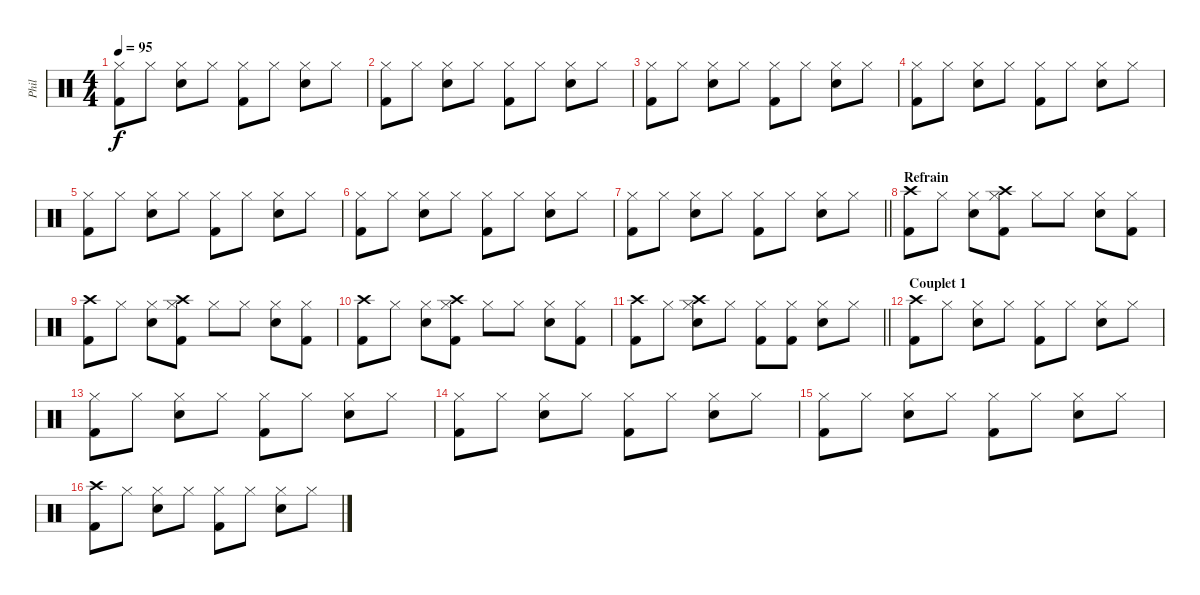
\track ("Phil" "Phil") {instrument percussion}
\staff {score}
\articulation defaults
\ts (4 4)
\tempo 95
\clef neutral
\ks c
("Kick (hit) 2" "Hi-Hat (closed)").8{dy f} "Hi-Hat (closed)".8 ("Electric Snare (hit)" "Hi-Hat (closed)").8 "Hi-Hat (closed)".8 ("Kick (hit) 2" "Hi-Hat (closed)").8 "Hi-Hat (closed)".8 ("Electric Snare (hit)" "Hi-Hat (closed)").8 "Hi-Hat (closed)".8 |
("Kick (hit) 2" "Hi-Hat (closed)").8 "Hi-Hat (closed)".8 ("Electric Snare (hit)" "Hi-Hat (closed)").8 "Hi-Hat (closed)".8 ("Kick (hit) 2" "Hi-Hat (closed)").8 "Hi-Hat (closed)".8 ("Electric Snare (hit)" "Hi-Hat (closed)").8 "Hi-Hat (closed)".8 |
("Kick (hit) 2" "Hi-Hat (closed)").8 "Hi-Hat (closed)".8 ("Electric Snare (hit)" "Hi-Hat (closed)").8 "Hi-Hat (closed)".8 ("Kick (hit) 2" "Hi-Hat (closed)").8 "Hi-Hat (closed)".8 ("Electric Snare (hit)" "Hi-Hat (closed)").8 "Hi-Hat (closed)".8 |
("Kick (hit) 2" "Hi-Hat (closed)").8 "Hi-Hat (closed)".8 ("Electric Snare (hit)" "Hi-Hat (closed)").8 "Hi-Hat (closed)".8 ("Kick (hit) 2" "Hi-Hat (closed)").8 "Hi-Hat (closed)".8 ("Electric Snare (hit)" "Hi-Hat (closed)").8 "Hi-Hat (closed)".8 |
("Kick (hit) 2" "Hi-Hat (closed)").8 "Hi-Hat (closed)".8 ("Electric Snare (hit)" "Hi-Hat (closed)").8 "Hi-Hat (closed)".8 ("Kick (hit) 2" "Hi-Hat (closed)").8 "Hi-Hat (closed)".8 ("Electric Snare (hit)" "Hi-Hat (closed)").8 "Hi-Hat (closed)".8 |
("Kick (hit) 2" "Hi-Hat (closed)").8 "Hi-Hat (closed)".8 ("Electric Snare (hit)" "Hi-Hat (closed)").8 "Hi-Hat (closed)".8 ("Kick (hit) 2" "Hi-Hat (closed)").8 "Hi-Hat (closed)".8 ("Electric Snare (hit)" "Hi-Hat (closed)").8 "Hi-Hat (closed)".8 |
\barLineRight lightlight
("Kick (hit) 2" "Hi-Hat (closed)").8 "Hi-Hat (closed)".8 ("Electric Snare (hit)" "Hi-Hat (closed)").8 "Hi-Hat (closed)".8 ("Kick (hit) 2" "Hi-Hat (closed)").8 "Hi-Hat (closed)".8 ("Electric Snare (hit)" "Hi-Hat (closed)").8 "Hi-Hat (closed)".8 |
\section ("" "Refrain")
("Kick (hit) 2" "Crash high (hit)").8 "Hi-Hat (closed)".8 ("Electric Snare (hit)" "Hi-Hat (closed)").8 ("Kick (hit) 2" "Hi-Hat (closed)" "Crash high (hit)").8 "Hi-Hat (closed)".8 "Hi-Hat (closed)".8 ("Electric Snare (hit)" "Hi-Hat (closed)").8 ("Kick (hit) 2" "Hi-Hat (closed)").8 |
("Kick (hit) 2" "Crash high (hit)").8 "Hi-Hat (closed)".8 ("Electric Snare (hit)" "Hi-Hat (closed)").8 ("Kick (hit) 2" "Hi-Hat (closed)" "Crash high (hit)").8 "Hi-Hat (closed)".8 "Hi-Hat (closed)".8 ("Electric Snare (hit)" "Hi-Hat (closed)").8 ("Kick (hit) 2" "Hi-Hat (closed)").8 |
("Kick (hit) 2" "Crash high (hit)").8 "Hi-Hat (closed)".8 ("Electric Snare (hit)" "Hi-Hat (closed)").8 ("Kick (hit) 2" "Hi-Hat (closed)" "Crash high (hit)").8 "Hi-Hat (closed)".8 "Hi-Hat (closed)".8 ("Electric Snare (hit)" "Hi-Hat (closed)").8 ("Kick (hit) 2" "Hi-Hat (closed)").8 |
\barLineRight lightlight
("Kick (hit) 2" "Crash high (hit)").8 "Hi-Hat (closed)".8 ("Electric Snare (hit)" "Hi-Hat (closed)" "Crash high (hit)").8 "Hi-Hat (closed)".8 ("Kick (hit) 2" "Hi-Hat (closed)").8 ("Kick (hit) 2" "Hi-Hat (closed)").8 ("Hi-Hat (closed)" "Electric Snare (hit)").8 "Hi-Hat (closed)".8 |
\section ("" "Couplet 1")
("Kick (hit) 2" "Crash high (hit)").8 "Hi-Hat (closed)".8 ("Electric Snare (hit)" "Hi-Hat (closed)").8 "Hi-Hat (closed)".8 ("Kick (hit) 2" "Hi-Hat (closed)").8 "Hi-Hat (closed)".8 ("Electric Snare (hit)" "Hi-Hat (closed)").8 "Hi-Hat (closed)".8 |
("Kick (hit) 2" "Hi-Hat (closed)").8 "Hi-Hat (closed)".8 ("Electric Snare (hit)" "Hi-Hat (closed)").8 "Hi-Hat (closed)".8 ("Kick (hit) 2" "Hi-Hat (closed)").8 "Hi-Hat (closed)".8 ("Electric Snare (hit)" "Hi-Hat (closed)").8 "Hi-Hat (closed)".8 |
("Kick (hit) 2" "Hi-Hat (closed)").8 "Hi-Hat (closed)".8 ("Electric Snare (hit)" "Hi-Hat (closed)").8 "Hi-Hat (closed)".8 ("Kick (hit) 2" "Hi-Hat (closed)").8 "Hi-Hat (closed)".8 ("Electric Snare (hit)" "Hi-Hat (closed)").8 "Hi-Hat (closed)".8 |
("Kick (hit) 2" "Hi-Hat (closed)").8 "Hi-Hat (closed)".8 ("Electric Snare (hit)" "Hi-Hat (closed)").8 "Hi-Hat (closed)".8 ("Kick (hit) 2" "Hi-Hat (closed)").8 "Hi-Hat (closed)".8 ("Electric Snare (hit)" "Hi-Hat (closed)").8 "Hi-Hat (closed)".8 |
("Kick (hit) 2" "Crash high (hit)").8 "Hi-Hat (closed)".8 ("Electric Snare (hit)" "Hi-Hat (closed)").8 "Hi-Hat (closed)".8 ("Kick (hit) 2" "Hi-Hat (closed)").8 "Hi-Hat (closed)".8 ("Electric Snare (hit)" "Hi-Hat (closed)").8 "Hi-Hat (closed)".8
